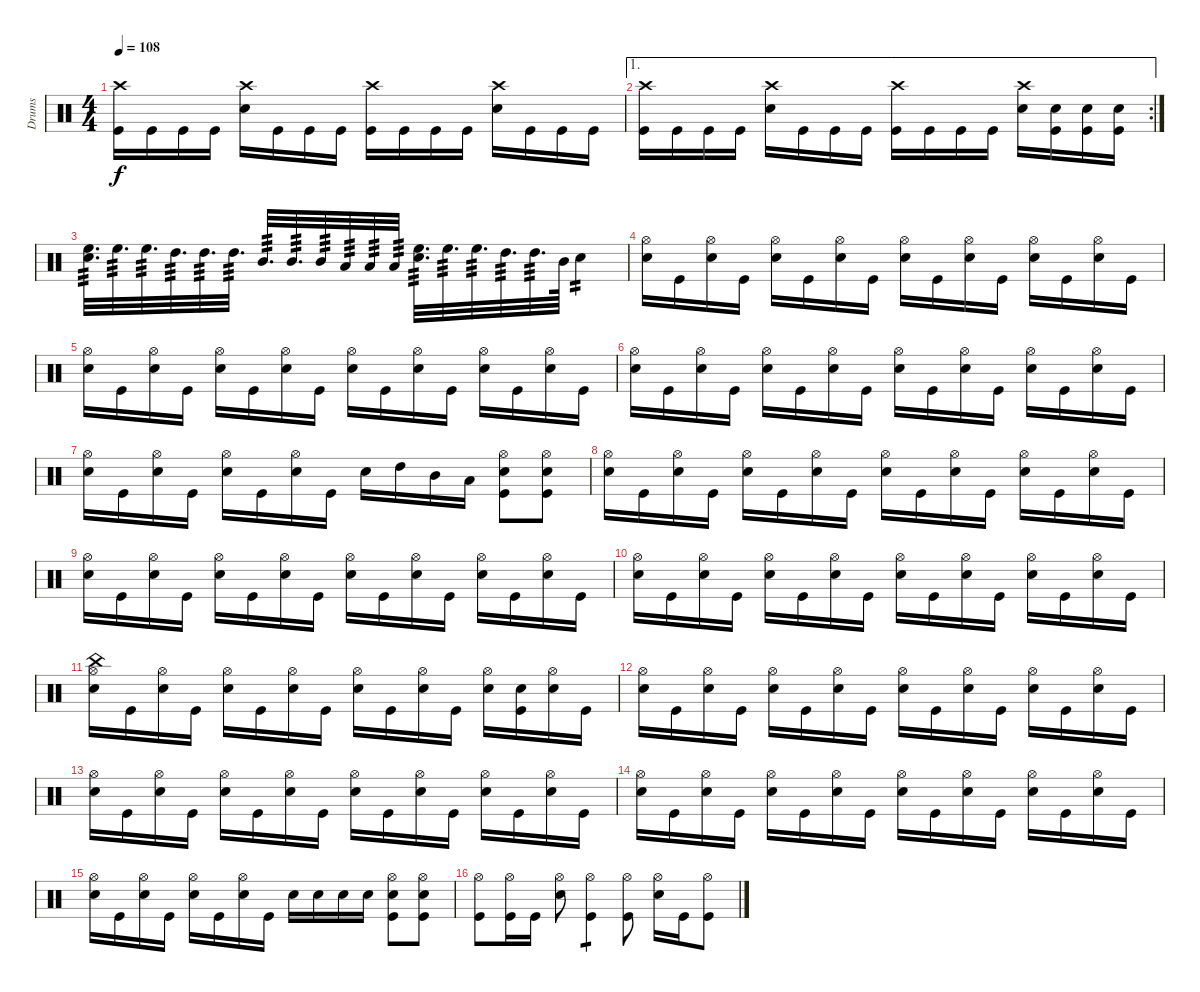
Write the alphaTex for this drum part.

\track ("Drums" "Drums") {instrument percussion}
\staff {score}
\articulation defaults
\ts (4 4)
\tempo 108
\clef neutral
\ks c
("Crash high (hit)" "Kick (hit)").16{dy f} "Kick (hit)".16 "Kick (hit)".16 "Kick (hit)".16 ("Crash high (hit)" "Snare (hit) 2").16 "Kick (hit)".16 "Kick (hit)".16 "Kick (hit)".16 ("Crash high (hit)" "Kick (hit)").16 "Kick (hit)".16 "Kick (hit)".16 "Kick (hit)".16 ("Crash high (hit)" "Snare (hit) 2").16 "Kick (hit)".16 "Kick (hit)".16 "Kick (hit)".16 |
\ae 1
\rc 2
("Crash high (hit)" "Kick (hit)").16 "Kick (hit)".16 "Kick (hit)".16 "Kick (hit)".16 ("Crash high (hit)" "Snare (hit) 2").16 "Kick (hit)".16 "Kick (hit)".16 "Kick (hit)".16 ("Crash high (hit)" "Kick (hit)").16 "Kick (hit)".16 "Kick (hit)".16 "Kick (hit)".16 ("Crash high (hit)" "Snare (hit) 2").16 ("Snare (hit) 2" "Kick (hit)").16 ("Snare (hit) 2" "Kick (hit)").16 ("Snare (hit) 2" "Kick (hit)").16 |
("Snare (hit) 2" "High Floor Tom (hit)").32{d tp 3} "High Floor Tom (hit)".32{d tp 3} "High Floor Tom (hit)".32{d tp 3} "High Tom (hit)".32{d tp 3} "High Tom (hit)".32{d tp 3} "High Tom (hit)".32{d tp 3} "Mid Tom (hit)".32{d tp 3} "Mid Tom (hit)".32{d tp 3} "Mid Tom (hit)".32{tp 3} "Low Tom (hit)".32{tp 3} "Low Tom (hit)".32{tp 3} "Low Tom (hit)".32{tp 3} ("Snare (hit) 2" "High Floor Tom (hit)").32{d tp 3} "High Floor Tom (hit)".32{d tp 3} "High Floor Tom (hit)".32{d tp 3} "High Tom (hit)".32{d tp 3} "High Tom (hit)".32{d tp 3} "Mid Tom (hit)".64 "Snare (hit) 2".4{tp 2} |
("Hi-Hat (open)" "Snare (hit) 2").16 "Kick (hit)".16 ("Hi-Hat (open)" "Snare (hit) 2").16 "Kick (hit)".16 ("Hi-Hat (open)" "Snare (hit) 2").16 "Kick (hit)".16 ("Hi-Hat (open)" "Snare (hit) 2").16 "Kick (hit)".16 ("Hi-Hat (open)" "Snare (hit) 2").16 "Kick (hit)".16 ("Hi-Hat (open)" "Snare (hit) 2").16 "Kick (hit)".16 ("Hi-Hat (open)" "Snare (hit) 2").16 "Kick (hit)".16 ("Hi-Hat (open)" "Snare (hit) 2").16 "Kick (hit)".16 |
("Hi-Hat (open)" "Snare (hit) 2").16 "Kick (hit)".16 ("Hi-Hat (open)" "Snare (hit) 2").16 "Kick (hit)".16 ("Hi-Hat (open)" "Snare (hit) 2").16 "Kick (hit)".16 ("Hi-Hat (open)" "Snare (hit) 2").16 "Kick (hit)".16 ("Hi-Hat (open)" "Snare (hit) 2").16 "Kick (hit)".16 ("Hi-Hat (open)" "Snare (hit) 2").16 "Kick (hit)".16 ("Hi-Hat (open)" "Snare (hit) 2").16 "Kick (hit)".16 ("Hi-Hat (open)" "Snare (hit) 2").16 "Kick (hit)".16 |
("Hi-Hat (open)" "Snare (hit) 2").16 "Kick (hit)".16 ("Hi-Hat (open)" "Snare (hit) 2").16 "Kick (hit)".16 ("Hi-Hat (open)" "Snare (hit) 2").16 "Kick (hit)".16 ("Hi-Hat (open)" "Snare (hit) 2").16 "Kick (hit)".16 ("Hi-Hat (open)" "Snare (hit) 2").16 "Kick (hit)".16 ("Hi-Hat (open)" "Snare (hit) 2").16 "Kick (hit)".16 ("Hi-Hat (open)" "Snare (hit) 2").16 "Kick (hit)".16 ("Hi-Hat (open)" "Snare (hit) 2").16 "Kick (hit)".16 |
("Hi-Hat (open)" "Snare (hit) 2").16 "Kick (hit)".16 ("Hi-Hat (open)" "Snare (hit) 2").16 "Kick (hit)".16 ("Hi-Hat (open)" "Snare (hit) 2").16 "Kick (hit)".16 ("Hi-Hat (open)" "Snare (hit) 2").16 "Kick (hit)".16 "Snare (hit) 2".16 "High Tom (hit)".16 "Mid Tom (hit)".16 "Low Tom (hit)".16 ("Hi-Hat (open)" "Snare (hit) 2" "Kick (hit)").8 ("Hi-Hat (open)" "Snare (hit) 2" "Kick (hit)").8 |
("Hi-Hat (open)" "Snare (hit) 2").16 "Kick (hit)".16 ("Hi-Hat (open)" "Snare (hit) 2").16 "Kick (hit)".16 ("Hi-Hat (open)" "Snare (hit) 2").16 "Kick (hit)".16 ("Hi-Hat (open)" "Snare (hit) 2").16 "Kick (hit)".16 ("Hi-Hat (open)" "Snare (hit) 2").16 "Kick (hit)".16 ("Hi-Hat (open)" "Snare (hit) 2").16 "Kick (hit)".16 ("Hi-Hat (open)" "Snare (hit) 2").16 "Kick (hit)".16 ("Hi-Hat (open)" "Snare (hit) 2").16 "Kick (hit)".16 |
("Hi-Hat (open)" "Snare (hit) 2").16 "Kick (hit)".16 ("Hi-Hat (open)" "Snare (hit) 2").16 "Kick (hit)".16 ("Hi-Hat (open)" "Snare (hit) 2").16 "Kick (hit)".16 ("Hi-Hat (open)" "Snare (hit) 2").16 "Kick (hit)".16 ("Hi-Hat (open)" "Snare (hit) 2").16 "Kick (hit)".16 ("Hi-Hat (open)" "Snare (hit) 2").16 "Kick (hit)".16 ("Hi-Hat (open)" "Snare (hit) 2").16 "Kick (hit)".16 ("Hi-Hat (open)" "Snare (hit) 2").16 "Kick (hit)".16 |
("Hi-Hat (open)" "Snare (hit) 2").16 "Kick (hit)".16 ("Hi-Hat (open)" "Snare (hit) 2").16 "Kick (hit)".16 ("Hi-Hat (open)" "Snare (hit) 2").16 "Kick (hit)".16 ("Hi-Hat (open)" "Snare (hit) 2").16 "Kick (hit)".16 ("Hi-Hat (open)" "Snare (hit) 2").16 "Kick (hit)".16 ("Hi-Hat (open)" "Snare (hit) 2").16 "Kick (hit)".16 ("Hi-Hat (open)" "Snare (hit) 2").16 "Kick (hit)".16 ("Hi-Hat (open)" "Snare (hit) 2").16 "Kick (hit)".16 |
("China (hit)" "Hi-Hat (open)" "Snare (hit) 2").16 "Kick (hit)".16 ("Hi-Hat (open)" "Snare (hit) 2").16 "Kick (hit)".16 ("Hi-Hat (open)" "Snare (hit) 2").16 "Kick (hit)".16 ("Hi-Hat (open)" "Snare (hit) 2").16 "Kick (hit)".16 ("Hi-Hat (open)" "Snare (hit) 2").16 "Kick (hit)".16 ("Hi-Hat (open)" "Snare (hit) 2").16 "Kick (hit)".16 ("Hi-Hat (open)" "Snare (hit) 2").16 ("Snare (hit) 2" "Kick (hit)").16 ("Hi-Hat (open)" "Snare (hit) 2").16 "Kick (hit)".16 |
("Hi-Hat (open)" "Snare (hit) 2").16 "Kick (hit)".16 ("Hi-Hat (open)" "Snare (hit) 2").16 "Kick (hit)".16 ("Hi-Hat (open)" "Snare (hit) 2").16 "Kick (hit)".16 ("Hi-Hat (open)" "Snare (hit) 2").16 "Kick (hit)".16 ("Hi-Hat (open)" "Snare (hit) 2").16 "Kick (hit)".16 ("Hi-Hat (open)" "Snare (hit) 2").16 "Kick (hit)".16 ("Hi-Hat (open)" "Snare (hit) 2").16 "Kick (hit)".16 ("Hi-Hat (open)" "Snare (hit) 2").16 "Kick (hit)".16 |
("Hi-Hat (open)" "Snare (hit) 2").16 "Kick (hit)".16 ("Hi-Hat (open)" "Snare (hit) 2").16 "Kick (hit)".16 ("Hi-Hat (open)" "Snare (hit) 2").16 "Kick (hit)".16 ("Hi-Hat (open)" "Snare (hit) 2").16 "Kick (hit)".16 ("Hi-Hat (open)" "Snare (hit) 2").16 "Kick (hit)".16 ("Hi-Hat (open)" "Snare (hit) 2").16 "Kick (hit)".16 ("Hi-Hat (open)" "Snare (hit) 2").16 "Kick (hit)".16 ("Hi-Hat (open)" "Snare (hit) 2").16 "Kick (hit)".16 |
("Hi-Hat (open)" "Snare (hit) 2").16 "Kick (hit)".16 ("Hi-Hat (open)" "Snare (hit) 2").16 "Kick (hit)".16 ("Hi-Hat (open)" "Snare (hit) 2").16 "Kick (hit)".16 ("Hi-Hat (open)" "Snare (hit) 2").16 "Kick (hit)".16 ("Hi-Hat (open)" "Snare (hit) 2").16 "Kick (hit)".16 ("Hi-Hat (open)" "Snare (hit) 2").16 "Kick (hit)".16 ("Hi-Hat (open)" "Snare (hit) 2").16 "Kick (hit)".16 ("Hi-Hat (open)" "Snare (hit) 2").16 "Kick (hit)".16 |
("Hi-Hat (open)" "Snare (hit) 2").16 "Kick (hit)".16 ("Hi-Hat (open)" "Snare (hit) 2").16 "Kick (hit)".16 ("Hi-Hat (open)" "Snare (hit) 2").16 "Kick (hit)".16 ("Hi-Hat (open)" "Snare (hit) 2").16 "Kick (hit)".16 "Snare (hit) 2".16 "Snare (hit) 2".16 "Snare (hit) 2".16 "Snare (hit) 2".16 ("Snare (hit) 2" "Hi-Hat (open)" "Kick (hit)").8 ("Snare (hit) 2" "Hi-Hat (open)" "Kick (hit)").8 |
("Hi-Hat (open)" "Kick (hit)").8 ("Hi-Hat (open)" "Kick (hit)").16 "Kick (hit)".16 ("Hi-Hat (open)" "Snare (hit) 2").8 ("Hi-Hat (open)" "Kick (hit)").4{tp 1} ("Hi-Hat (open)" "Kick (hit)").8 ("Hi-Hat (open)" "Snare (hit) 2").16 "Kick (hit)".16 ("Hi-Hat (open)" "Kick (hit)").8
